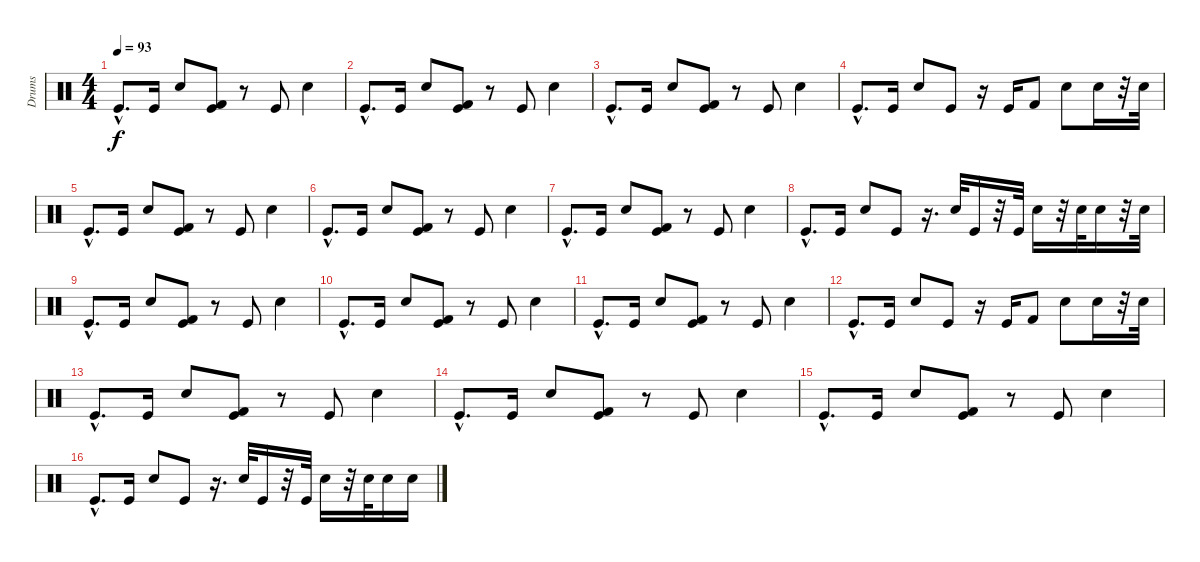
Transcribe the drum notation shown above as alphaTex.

\track ("Drums" "Drums") {instrument percussion}
\staff {score}
\articulation defaults
\ts (4 4)
\tempo 93
\clef neutral
\ks c "Kick (hit)"{hac}.8{d dy f} "Kick (hit)".16 "Electric Snare (hit)".8
("Kick (hit)" "Kick (hit) 2").8 r.8 "Kick (hit)".8 "Electric Snare (hit)".4 |
"Kick (hit)"{hac}.8{d} "Kick (hit)".16 "Electric Snare (hit)".8 ("Kick (hit)" "Kick (hit) 2").8 r.8 "Kick (hit)".8 "Electric Snare (hit)".4 |
"Kick (hit)"{hac}.8{d} "Kick (hit)".16 "Electric Snare (hit)".8 ("Kick (hit)" "Kick (hit) 2").8 r.8 "Kick (hit)".8 "Electric Snare (hit)".4 |
"Kick (hit)"{hac}.8{d} "Kick (hit)".16 "Electric Snare (hit)".8 "Kick (hit)".8 r.16 "Kick (hit)".16 "Kick (hit) 2".8 "Electric Snare (hit)".8 "Electric Snare (hit)".16 r.32 "Electric Snare (hit)".32 |
"Kick (hit)"{hac}.8{d} "Kick (hit)".16 "Electric Snare (hit)".8 ("Kick (hit)" "Kick (hit) 2").8 r.8 "Kick (hit)".8 "Electric Snare (hit)".4 |
"Kick (hit)"{hac}.8{d} "Kick (hit)".16 "Electric Snare (hit)".8 ("Kick (hit)" "Kick (hit) 2").8 r.8 "Kick (hit)".8 "Electric Snare (hit)".4 |
"Kick (hit)"{hac}.8{d} "Kick (hit)".16 "Electric Snare (hit)".8 ("Kick (hit)" "Kick (hit) 2").8 r.8 "Kick (hit)".8 "Electric Snare (hit)".4 |
"Kick (hit)"{hac}.8{d} "Kick (hit)".16 "Electric Snare (hit)".8 "Kick (hit)".8 r.16{d} "Electric Snare (hit)".32 "Kick (hit)".16 r.32 "Kick (hit)".32 "Electric Snare (hit)".16 r.32 "Electric Snare (hit)".32 "Electric Snare (hit)".16 r.32 "Electric Snare (hit)".32 |
"Kick (hit)"{hac}.8{d} "Kick (hit)".16 "Electric Snare (hit)".8 ("Kick (hit)" "Kick (hit) 2").8 r.8 "Kick (hit)".8 "Electric Snare (hit)".4 |
"Kick (hit)"{hac}.8{d} "Kick (hit)".16 "Electric Snare (hit)".8 ("Kick (hit)" "Kick (hit) 2").8 r.8 "Kick (hit)".8 "Electric Snare (hit)".4 |
"Kick (hit)"{hac}.8{d} "Kick (hit)".16 "Electric Snare (hit)".8 ("Kick (hit)" "Kick (hit) 2").8 r.8 "Kick (hit)".8 "Electric Snare (hit)".4 |
"Kick (hit)"{hac}.8{d} "Kick (hit)".16 "Electric Snare (hit)".8 "Kick (hit)".8 r.16 "Kick (hit)".16 "Kick (hit) 2".8 "Electric Snare (hit)".8 "Electric Snare (hit)".16 r.32 "Electric Snare (hit)".32 |
"Kick (hit)"{hac}.8{d} "Kick (hit)".16 "Electric Snare (hit)".8 ("Kick (hit)" "Kick (hit) 2").8 r.8 "Kick (hit)".8 "Electric Snare (hit)".4 |
"Kick (hit)"{hac}.8{d} "Kick (hit)".16 "Electric Snare (hit)".8 ("Kick (hit)" "Kick (hit) 2").8 r.8 "Kick (hit)".8 "Electric Snare (hit)".4 |
"Kick (hit)"{hac}.8{d} "Kick (hit)".16 "Electric Snare (hit)".8 ("Kick (hit)" "Kick (hit) 2").8 r.8 "Kick (hit)".8 "Electric Snare (hit)".4 |
"Kick (hit)"{hac}.8{d} "Kick (hit)".16 "Electric Snare (hit)".8 "Kick (hit)".8 r.16{d} "Electric Snare (hit)".32 "Kick (hit)".16 r.32 "Kick (hit)".32 "Electric Snare (hit)".16 r.32 "Electric Snare (hit)".32 "Electric Snare (hit)".16 "Electric Snare (hit)".16
